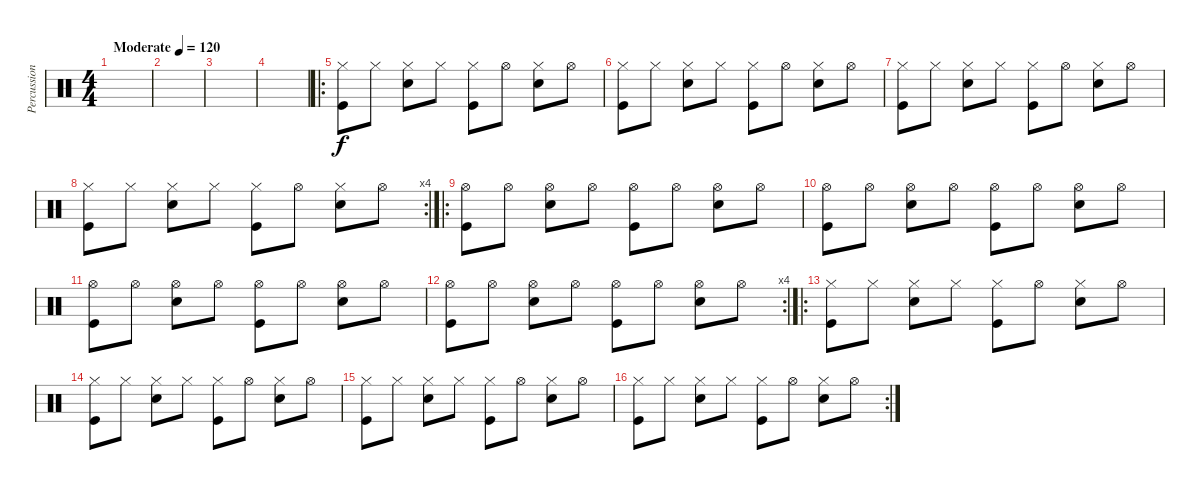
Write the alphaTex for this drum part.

\track ("Percussion" "Percussion") {instrument percussion}
\staff {score}
\articulation defaults
\ts (4 4)
\tempo (120 "Moderate")
\clef neutral
\ks c
|
|
|
|
\ro
("Hi-Hat (closed)" "Kick (hit)").8 "Hi-Hat (closed)".8 ("Hi-Hat (closed)" "Electric Snare (hit)").8 "Hi-Hat (closed)".8 ("Hi-Hat (closed)" "Kick (hit)").8 "Hi-Hat (open)".8 ("Hi-Hat (closed)" "Electric Snare (hit)").8 "Hi-Hat (open)".8 |
("Hi-Hat (closed)" "Kick (hit)").8 "Hi-Hat (closed)".8 ("Hi-Hat (closed)" "Electric Snare (hit)").8 "Hi-Hat (closed)".8 ("Hi-Hat (closed)" "Kick (hit)").8 "Hi-Hat (open)".8 ("Hi-Hat (closed)" "Electric Snare (hit)").8 "Hi-Hat (open)".8 |
("Hi-Hat (closed)" "Kick (hit)").8 "Hi-Hat (closed)".8 ("Hi-Hat (closed)" "Electric Snare (hit)").8 "Hi-Hat (closed)".8 ("Hi-Hat (closed)" "Kick (hit)").8 "Hi-Hat (open)".8 ("Hi-Hat (closed)" "Electric Snare (hit)").8 "Hi-Hat (open)".8 |
\rc 4
("Hi-Hat (closed)" "Kick (hit)").8 "Hi-Hat (closed)".8 ("Hi-Hat (closed)" "Electric Snare (hit)").8 "Hi-Hat (closed)".8 ("Hi-Hat (closed)" "Kick (hit)").8 "Hi-Hat (open)".8 ("Hi-Hat (closed)" "Electric Snare (hit)").8 "Hi-Hat (open)".8 |
\ro
("Hi-Hat (open)" "Kick (hit)").8 "Hi-Hat (open)".8 ("Hi-Hat (open)" "Electric Snare (hit)").8 "Hi-Hat (open)".8 ("Hi-Hat (open)" "Kick (hit)").8 "Hi-Hat (open)".8 ("Hi-Hat (open)" "Electric Snare (hit)").8 "Hi-Hat (open)".8 |
("Hi-Hat (open)" "Kick (hit)").8 "Hi-Hat (open)".8 ("Hi-Hat (open)" "Electric Snare (hit)").8 "Hi-Hat (open)".8 ("Hi-Hat (open)" "Kick (hit)").8 "Hi-Hat (open)".8 ("Hi-Hat (open)" "Electric Snare (hit)").8 "Hi-Hat (open)".8 |
("Hi-Hat (open)" "Kick (hit)").8 "Hi-Hat (open)".8 ("Hi-Hat (open)" "Electric Snare (hit)").8 "Hi-Hat (open)".8 ("Hi-Hat (open)" "Kick (hit)").8 "Hi-Hat (open)".8 ("Hi-Hat (open)" "Electric Snare (hit)").8 "Hi-Hat (open)".8 |
\rc 4
("Hi-Hat (open)" "Kick (hit)").8 "Hi-Hat (open)".8 ("Hi-Hat (open)" "Electric Snare (hit)").8 "Hi-Hat (open)".8 ("Hi-Hat (open)" "Kick (hit)").8 "Hi-Hat (open)".8 ("Hi-Hat (open)" "Electric Snare (hit)").8 "Hi-Hat (open)".8 |
\ro
("Hi-Hat (closed)" "Kick (hit)").8 "Hi-Hat (closed)".8 ("Hi-Hat (closed)" "Electric Snare (hit)").8 "Hi-Hat (closed)".8 ("Hi-Hat (closed)" "Kick (hit)").8 "Hi-Hat (open)".8 ("Hi-Hat (closed)" "Electric Snare (hit)").8 "Hi-Hat (open)".8 |
("Hi-Hat (closed)" "Kick (hit)").8 "Hi-Hat (closed)".8 ("Hi-Hat (closed)" "Electric Snare (hit)").8 "Hi-Hat (closed)".8 ("Hi-Hat (closed)" "Kick (hit)").8 "Hi-Hat (open)".8 ("Hi-Hat (closed)" "Electric Snare (hit)").8 "Hi-Hat (open)".8 |
("Hi-Hat (closed)" "Kick (hit)").8 "Hi-Hat (closed)".8 ("Hi-Hat (closed)" "Electric Snare (hit)").8 "Hi-Hat (closed)".8 ("Hi-Hat (closed)" "Kick (hit)").8 "Hi-Hat (open)".8 ("Hi-Hat (closed)" "Electric Snare (hit)").8 "Hi-Hat (open)".8 |
\rc 2
("Hi-Hat (closed)" "Kick (hit)").8 "Hi-Hat (closed)".8 ("Hi-Hat (closed)" "Electric Snare (hit)").8 "Hi-Hat (closed)".8 ("Hi-Hat (closed)" "Kick (hit)").8 "Hi-Hat (open)".8 ("Hi-Hat (closed)" "Electric Snare (hit)").8 "Hi-Hat (open)".8
